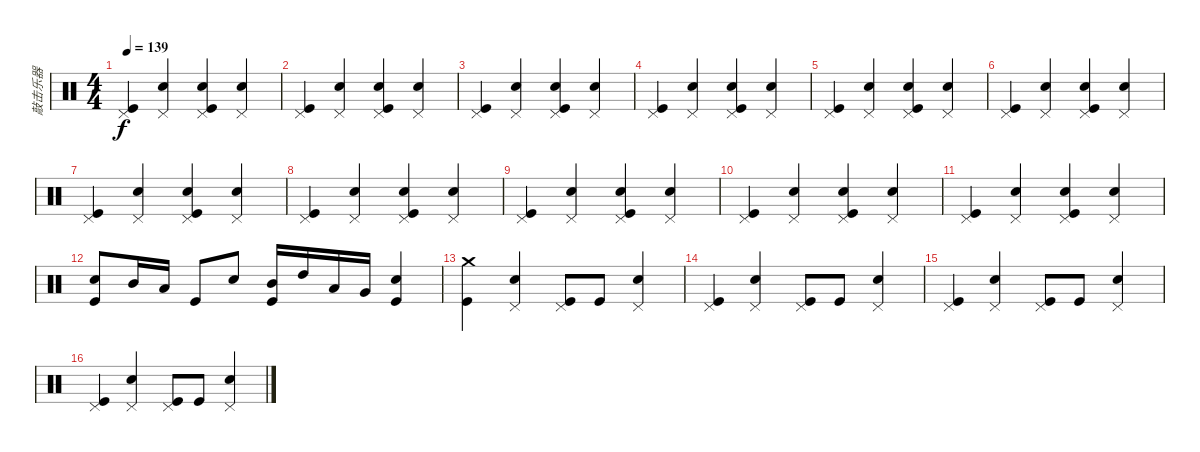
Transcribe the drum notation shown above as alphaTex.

\track ("敲击乐器" "敲击乐器") {instrument percussion}
\staff {score}
\articulation defaults
\ts (4 4)
\tempo 139
\clef neutral
\ks c
("Pedal Hi-Hat (hit)" "Kick (hit)").4{dy f} ("Pedal Hi-Hat (hit)" "Snare (hit) 2").4 ("Pedal Hi-Hat (hit)" "Snare (hit) 2" "Kick (hit)").4 ("Pedal Hi-Hat (hit)" "Snare (hit) 2").4 |
("Pedal Hi-Hat (hit)" "Kick (hit)").4 ("Pedal Hi-Hat (hit)" "Snare (hit) 2").4 ("Pedal Hi-Hat (hit)" "Snare (hit) 2" "Kick (hit)").4 ("Pedal Hi-Hat (hit)" "Snare (hit) 2").4 |
("Pedal Hi-Hat (hit)" "Kick (hit)").4 ("Pedal Hi-Hat (hit)" "Snare (hit) 2").4 ("Pedal Hi-Hat (hit)" "Snare (hit) 2" "Kick (hit)").4 ("Pedal Hi-Hat (hit)" "Snare (hit) 2").4 |
("Pedal Hi-Hat (hit)" "Kick (hit)").4 ("Pedal Hi-Hat (hit)" "Snare (hit) 2").4 ("Pedal Hi-Hat (hit)" "Snare (hit) 2" "Kick (hit)").4 ("Pedal Hi-Hat (hit)" "Snare (hit) 2").4 |
("Pedal Hi-Hat (hit)" "Kick (hit)").4 ("Pedal Hi-Hat (hit)" "Snare (hit) 2").4 ("Pedal Hi-Hat (hit)" "Snare (hit) 2" "Kick (hit)").4 ("Pedal Hi-Hat (hit)" "Snare (hit) 2").4 |
("Pedal Hi-Hat (hit)" "Kick (hit)").4 ("Pedal Hi-Hat (hit)" "Snare (hit) 2").4 ("Pedal Hi-Hat (hit)" "Snare (hit) 2" "Kick (hit)").4 ("Pedal Hi-Hat (hit)" "Snare (hit) 2").4 |
("Pedal Hi-Hat (hit)" "Kick (hit)").4 ("Pedal Hi-Hat (hit)" "Snare (hit) 2").4 ("Pedal Hi-Hat (hit)" "Snare (hit) 2" "Kick (hit)").4 ("Pedal Hi-Hat (hit)" "Snare (hit) 2").4 |
("Pedal Hi-Hat (hit)" "Kick (hit)").4 ("Pedal Hi-Hat (hit)" "Snare (hit) 2").4 ("Pedal Hi-Hat (hit)" "Snare (hit) 2" "Kick (hit)").4 ("Pedal Hi-Hat (hit)" "Snare (hit) 2").4 |
("Pedal Hi-Hat (hit)" "Kick (hit)").4 ("Pedal Hi-Hat (hit)" "Snare (hit) 2").4 ("Pedal Hi-Hat (hit)" "Snare (hit) 2" "Kick (hit)").4 ("Pedal Hi-Hat (hit)" "Snare (hit) 2").4 |
("Pedal Hi-Hat (hit)" "Kick (hit)").4 ("Pedal Hi-Hat (hit)" "Snare (hit) 2").4 ("Pedal Hi-Hat (hit)" "Snare (hit) 2" "Kick (hit)").4 ("Pedal Hi-Hat (hit)" "Snare (hit) 2").4 |
("Pedal Hi-Hat (hit)" "Kick (hit)").4 ("Pedal Hi-Hat (hit)" "Snare (hit) 2").4 ("Pedal Hi-Hat (hit)" "Snare (hit) 2" "Kick (hit)").4 ("Pedal Hi-Hat (hit)" "Snare (hit) 2").4 |
("Snare (hit) 2" "Kick (hit)").8 "Mid Tom (hit)".16 "Low Tom (hit)".16 "Kick (hit)".8 "Snare (hit) 2".8 ("Mid Tom (hit)" "Kick (hit)").16 "High Tom (hit)".16 "Low Tom (hit)".16 "Very Low Tom (hit)".16 ("Snare (hit) 2" "Kick (hit)").4 |
("Crash medium (hit)" "Kick (hit)").4 ("Pedal Hi-Hat (hit)" "Snare (hit) 2").4 ("Pedal Hi-Hat (hit)" "Kick (hit)").8 "Kick (hit)".8 ("Pedal Hi-Hat (hit)" "Snare (hit) 2").4 |
("Pedal Hi-Hat (hit)" "Kick (hit)").4 ("Pedal Hi-Hat (hit)" "Snare (hit) 2").4 ("Pedal Hi-Hat (hit)" "Kick (hit)").8 "Kick (hit)".8 ("Pedal Hi-Hat (hit)" "Snare (hit) 2").4 |
("Pedal Hi-Hat (hit)" "Kick (hit)").4 ("Pedal Hi-Hat (hit)" "Snare (hit) 2").4 ("Pedal Hi-Hat (hit)" "Kick (hit)").8 "Kick (hit)".8 ("Pedal Hi-Hat (hit)" "Snare (hit) 2").4 |
("Pedal Hi-Hat (hit)" "Kick (hit)").4 ("Pedal Hi-Hat (hit)" "Snare (hit) 2").4 ("Pedal Hi-Hat (hit)" "Kick (hit)").8 "Kick (hit)".8 ("Pedal Hi-Hat (hit)" "Snare (hit) 2").4
